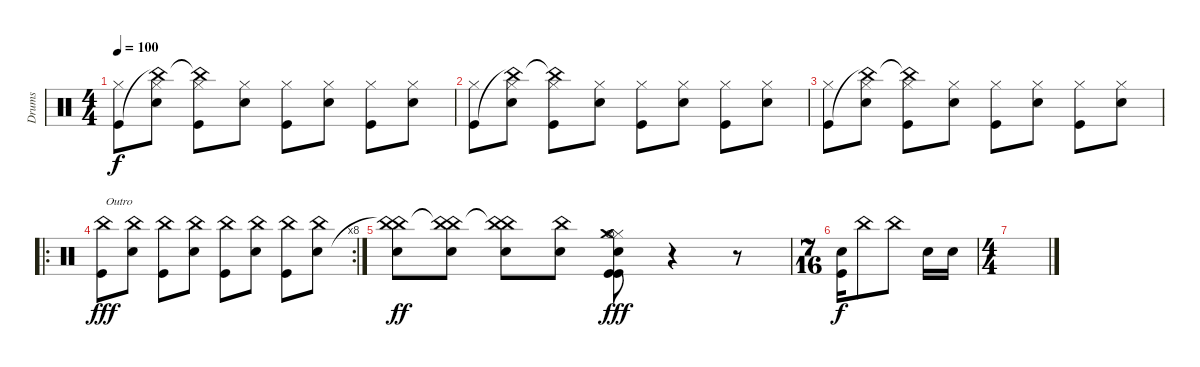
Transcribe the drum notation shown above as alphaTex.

\track ("Drums" "Drums") {instrument percussion}
\staff {score}
\articulation defaults
\ts (4 4)
\tempo 100
\clef neutral
\ks c
("Hi-Hat (closed)" "Kick (hit)").8{dy f} ("Hi-Hat (closed)" "China (hit)"{t} "Snare (hit) 2").8 ("Hi-Hat (closed)" "China (hit)"{t} "Kick (hit)").8 ("Hi-Hat (closed)" "Snare (hit) 2").8 ("Hi-Hat (closed)" "Kick (hit)").8 ("Hi-Hat (closed)" "Snare (hit) 2").8 ("Hi-Hat (closed)" "Kick (hit)").8 ("Hi-Hat (closed)" "Snare (hit) 2").8 |
("Hi-Hat (closed)" "Kick (hit)").8 ("Hi-Hat (closed)" "China (hit)"{t} "Snare (hit) 2").8 ("Hi-Hat (closed)" "China (hit)"{t} "Kick (hit)").8 ("Hi-Hat (closed)" "Snare (hit) 2").8 ("Hi-Hat (closed)" "Kick (hit)").8 ("Hi-Hat (closed)" "Snare (hit) 2").8 ("Hi-Hat (closed)" "Kick (hit)").8 ("Hi-Hat (closed)" "Snare (hit) 2").8 |
("Hi-Hat (closed)" "Kick (hit)").8 ("Hi-Hat (closed)" "China (hit)"{t} "Snare (hit) 2").8 ("Hi-Hat (closed)" "China (hit)"{t} "Kick (hit)").8 ("Hi-Hat (closed)" "Snare (hit) 2").8 ("Hi-Hat (closed)" "Kick (hit)").8 ("Hi-Hat (closed)" "Snare (hit) 2").8 ("Hi-Hat (closed)" "Kick (hit)").8 ("Hi-Hat (closed)" "Snare (hit) 2").8 |
\ro
\rc 8
("China (hit)" "Kick (hit)").8{txt "Outro" dy fff} ("China (hit)" "Snare (hit) 2").8 ("China (hit)" "Kick (hit)").8 ("China (hit)" "Snare (hit) 2").8 ("China (hit)" "Kick (hit)").8 ("China (hit)" "Snare (hit) 2").8 ("China (hit)" "Kick (hit)").8 ("China (hit)" "Snare (hit) 2").8 |
("China (hit)" "China (hit)"{t} "Snare (hit) 2").8{dy ff} ("China (hit)" "China (hit)"{t} "Snare (hit) 2").8 ("China (hit)" "China (hit)"{t} "Snare (hit) 2").8 ("China (hit)" "Snare (hit) 2").8 ("Hi-Hat (closed)" "Hi-Hat (open)" "Kick (hit)" "Snare (hit) 2" "Crash medium (hit)" "Kick (hit)").8{dy fff} r.4 r.8 |
\ts (7 16)
("Snare (hit) 2" "Kick (hit)").16{dy f} "China (hit)".8 "China (hit)".8 "Snare (hit) 2".16 "Snare (hit) 2".16 |
\ts (4 4)
